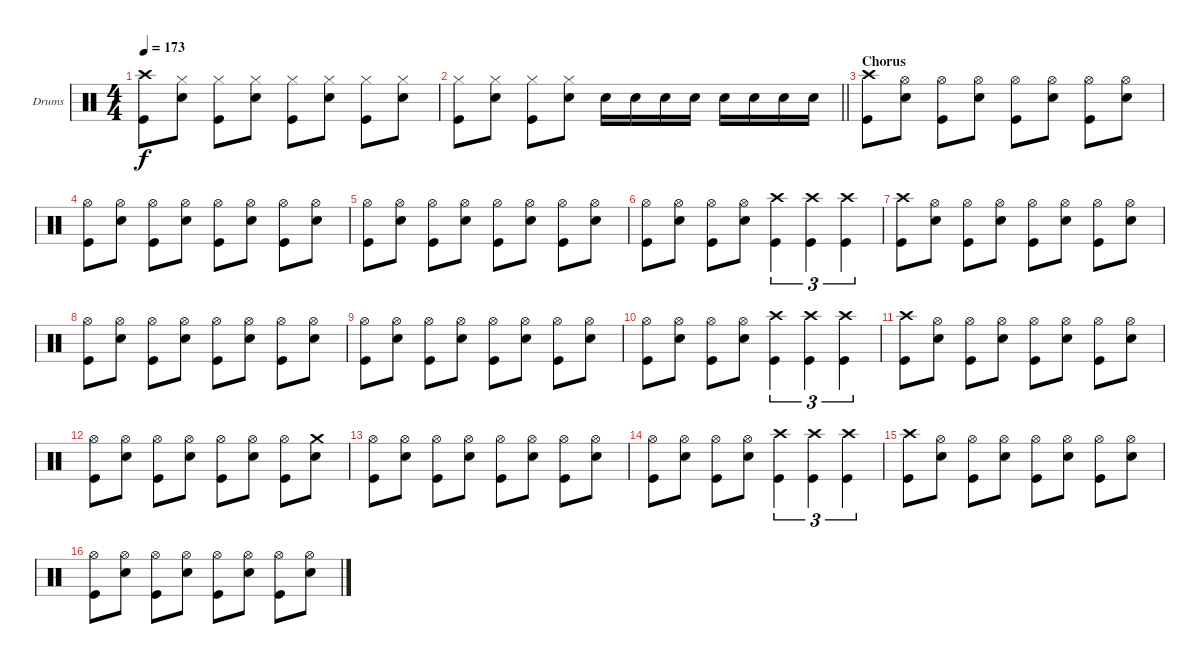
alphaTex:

\bracketExtendMode groupsimilarinstruments
\firstSystemTrackNameOrientation horizontal
\otherSystemsTrackNameOrientation horizontal
\track ("Drums" "Drums") {instrument percussion}
\staff {score}
\articulation defaults
\ts (4 4)
\tempo 173
\clef neutral
\ks c
("Crash high (hit)" "Kick (hit)").8{dy f} ("Hi-Hat (closed)" "Snare (hit) 2").8 ("Hi-Hat (closed)" "Kick (hit)").8 ("Hi-Hat (closed)" "Snare (hit) 2").8 ("Hi-Hat (closed)" "Kick (hit)").8 ("Hi-Hat (closed)" "Snare (hit) 2").8 ("Hi-Hat (closed)" "Kick (hit)").8 ("Hi-Hat (closed)" "Snare (hit) 2").8 |
\barLineRight lightlight
("Hi-Hat (closed)" "Kick (hit)").8 ("Hi-Hat (closed)" "Snare (hit) 2").8 ("Hi-Hat (closed)" "Kick (hit)").8 ("Hi-Hat (closed)" "Snare (hit) 2").8 "Snare (hit) 2".16 "Snare (hit) 2".16 "Snare (hit) 2".16 "Snare (hit) 2".16 "Snare (hit) 2".16 "Snare (hit) 2".16 "Snare (hit) 2".16 "Snare (hit) 2".16 |
\section ("" "Chorus")
("Crash high (hit)" "Kick (hit)").8 ("Hi-Hat (open)" "Snare (hit) 2").8 ("Hi-Hat (open)" "Kick (hit)").8 ("Hi-Hat (open)" "Snare (hit) 2").8 ("Hi-Hat (open)" "Kick (hit)").8 ("Hi-Hat (open)" "Snare (hit) 2").8 ("Hi-Hat (open)" "Kick (hit)").8 ("Hi-Hat (open)" "Snare (hit) 2").8 |
("Hi-Hat (open)" "Kick (hit)").8 ("Hi-Hat (open)" "Snare (hit) 2").8 ("Hi-Hat (open)" "Kick (hit)").8 ("Hi-Hat (open)" "Snare (hit) 2").8 ("Hi-Hat (open)" "Kick (hit)").8 ("Hi-Hat (open)" "Snare (hit) 2").8 ("Hi-Hat (open)" "Kick (hit)").8 ("Hi-Hat (open)" "Snare (hit) 2").8 |
("Hi-Hat (open)" "Kick (hit)").8 ("Hi-Hat (open)" "Snare (hit) 2").8 ("Hi-Hat (open)" "Kick (hit)").8 ("Hi-Hat (open)" "Snare (hit) 2").8 ("Hi-Hat (open)" "Kick (hit)").8 ("Hi-Hat (open)" "Snare (hit) 2").8 ("Hi-Hat (open)" "Kick (hit)").8 ("Hi-Hat (open)" "Snare (hit) 2").8 |
("Hi-Hat (open)" "Kick (hit)").8 ("Hi-Hat (open)" "Snare (hit) 2").8 ("Hi-Hat (open)" "Kick (hit)").8 ("Hi-Hat (open)" "Snare (hit) 2").8 ("Crash high (hit)" "Kick (hit)").4{tu (3 2)} ("Crash high (hit)" "Kick (hit)").4{tu (3 2)} ("Crash high (hit)" "Kick (hit)").4{tu (3 2)} |
("Crash high (hit)" "Kick (hit)").8 ("Hi-Hat (open)" "Snare (hit) 2").8 ("Hi-Hat (open)" "Kick (hit)").8 ("Hi-Hat (open)" "Snare (hit) 2").8 ("Hi-Hat (open)" "Kick (hit)").8 ("Hi-Hat (open)" "Snare (hit) 2").8 ("Hi-Hat (open)" "Kick (hit)").8 ("Hi-Hat (open)" "Snare (hit) 2").8 |
("Hi-Hat (open)" "Kick (hit)").8 ("Hi-Hat (open)" "Snare (hit) 2").8 ("Hi-Hat (open)" "Kick (hit)").8 ("Hi-Hat (open)" "Snare (hit) 2").8 ("Hi-Hat (open)" "Kick (hit)").8 ("Hi-Hat (open)" "Snare (hit) 2").8 ("Hi-Hat (open)" "Kick (hit)").8 ("Hi-Hat (open)" "Snare (hit) 2").8 |
("Hi-Hat (open)" "Kick (hit)").8 ("Hi-Hat (open)" "Snare (hit) 2").8 ("Hi-Hat (open)" "Kick (hit)").8 ("Hi-Hat (open)" "Snare (hit) 2").8 ("Hi-Hat (open)" "Kick (hit)").8 ("Hi-Hat (open)" "Snare (hit) 2").8 ("Hi-Hat (open)" "Kick (hit)").8 ("Hi-Hat (open)" "Snare (hit) 2").8 |
("Hi-Hat (open)" "Kick (hit)").8 ("Hi-Hat (open)" "Snare (hit) 2").8 ("Hi-Hat (open)" "Kick (hit)").8 ("Hi-Hat (open)" "Snare (hit) 2").8 ("Crash high (hit)" "Kick (hit)").4{tu (3 2)} ("Crash high (hit)" "Kick (hit)").4{tu (3 2)} ("Crash high (hit)" "Kick (hit)").4{tu (3 2)} |
("Crash high (hit)" "Kick (hit)").8 ("Hi-Hat (open)" "Snare (hit) 2").8 ("Hi-Hat (open)" "Kick (hit)").8 ("Hi-Hat (open)" "Snare (hit) 2").8 ("Hi-Hat (open)" "Kick (hit)").8 ("Hi-Hat (open)" "Snare (hit) 2").8 ("Hi-Hat (open)" "Kick (hit)").8 ("Hi-Hat (open)" "Snare (hit) 2").8 |
("Hi-Hat (open)" "Kick (hit)").8 ("Hi-Hat (open)" "Snare (hit) 2").8 ("Hi-Hat (open)" "Kick (hit)").8 ("Hi-Hat (open)" "Snare (hit) 2").8 ("Hi-Hat (open)" "Kick (hit)").8 ("Hi-Hat (open)" "Snare (hit) 2").8 ("Hi-Hat (open)" "Kick (hit)").8 ("Snare (hit) 2" "Crash medium (hit)").8 |
("Hi-Hat (open)" "Kick (hit)").8 ("Hi-Hat (open)" "Snare (hit) 2").8 ("Hi-Hat (open)" "Kick (hit)").8 ("Hi-Hat (open)" "Snare (hit) 2").8 ("Hi-Hat (open)" "Kick (hit)").8 ("Hi-Hat (open)" "Snare (hit) 2").8 ("Hi-Hat (open)" "Kick (hit)").8 ("Hi-Hat (open)" "Snare (hit) 2").8 |
("Hi-Hat (open)" "Kick (hit)").8 ("Hi-Hat (open)" "Snare (hit) 2").8 ("Hi-Hat (open)" "Kick (hit)").8 ("Hi-Hat (open)" "Snare (hit) 2").8 ("Crash high (hit)" "Kick (hit)").4{tu (3 2)} ("Crash high (hit)" "Kick (hit)").4{tu (3 2)} ("Crash high (hit)" "Kick (hit)").4{tu (3 2)} |
("Crash high (hit)" "Kick (hit)").8 ("Hi-Hat (open)" "Snare (hit) 2").8 ("Hi-Hat (open)" "Kick (hit)").8 ("Hi-Hat (open)" "Snare (hit) 2").8 ("Hi-Hat (open)" "Kick (hit)").8 ("Hi-Hat (open)" "Snare (hit) 2").8 ("Hi-Hat (open)" "Kick (hit)").8 ("Hi-Hat (open)" "Snare (hit) 2").8 |
("Hi-Hat (open)" "Kick (hit)").8 ("Hi-Hat (open)" "Snare (hit) 2").8 ("Hi-Hat (open)" "Kick (hit)").8 ("Hi-Hat (open)" "Snare (hit) 2").8 ("Hi-Hat (open)" "Kick (hit)").8 ("Hi-Hat (open)" "Snare (hit) 2").8 ("Hi-Hat (open)" "Kick (hit)").8 ("Hi-Hat (open)" "Snare (hit) 2").8
